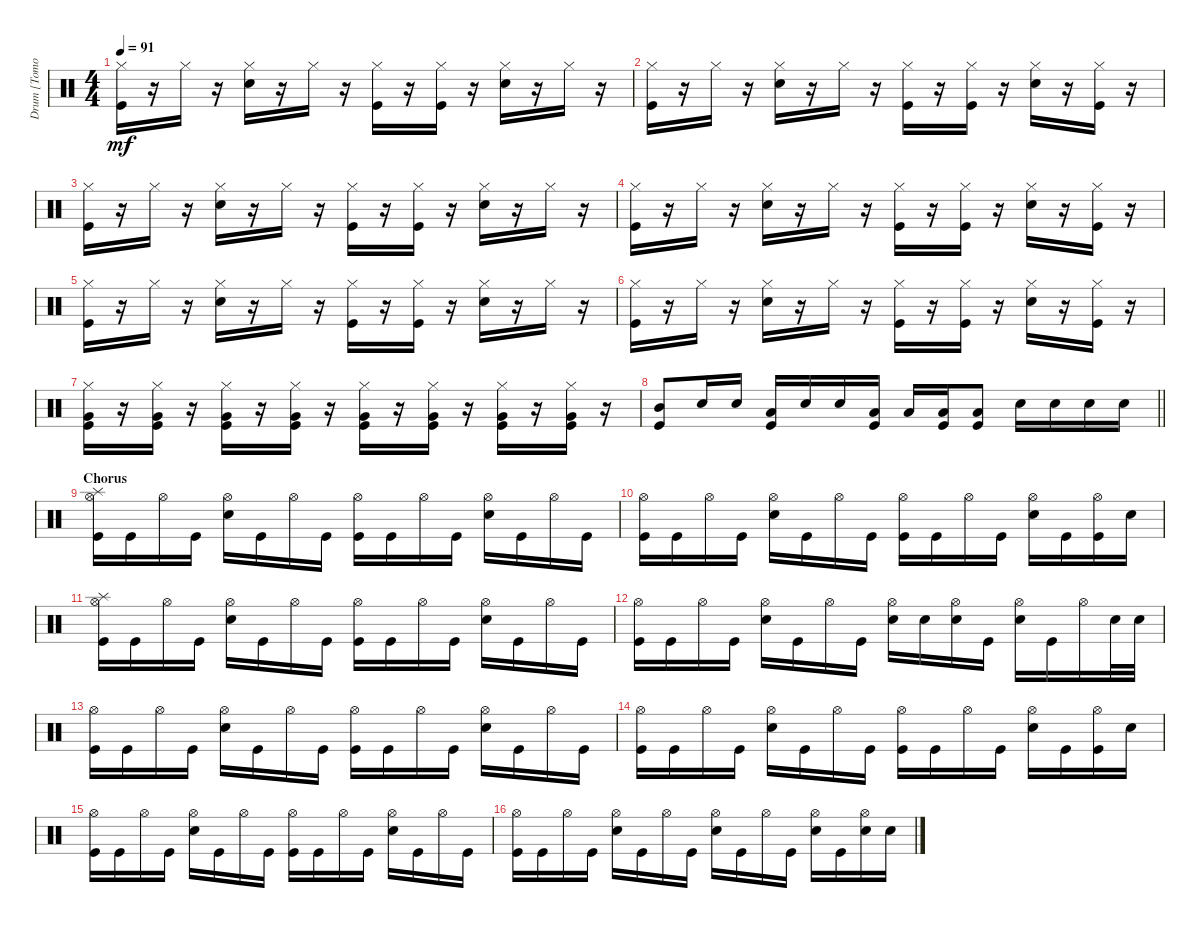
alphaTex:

\track ("Drum [Tomoya]" "Drum [Tomo") {instrument percussion}
\staff {score}
\articulation defaults
\ts (4 4)
\tempo 91
\clef neutral
\ks c
("Hi-Hat (closed)" "Kick (hit)").16{dy mf} r.16 "Hi-Hat (closed)".16 r.16 ("Hi-Hat (closed)" "Snare (hit) 2").16 r.16 "Hi-Hat (closed)".16 r.16 ("Hi-Hat (closed)" "Kick (hit)").16 r.16 ("Hi-Hat (closed)" "Kick (hit)").16 r.16 ("Hi-Hat (closed)" "Snare (hit) 2").16 r.16 "Hi-Hat (closed)".16 r.16 |
("Hi-Hat (closed)" "Kick (hit)").16 r.16 "Hi-Hat (closed)".16 r.16 ("Hi-Hat (closed)" "Snare (hit) 2").16 r.16 "Hi-Hat (closed)".16 r.16 ("Hi-Hat (closed)" "Kick (hit)").16 r.16 ("Hi-Hat (closed)" "Kick (hit)").16 r.16 ("Hi-Hat (closed)" "Snare (hit) 2").16 r.16 ("Hi-Hat (closed)" "Kick (hit)").16 r.16 |
("Hi-Hat (closed)" "Kick (hit)").16 r.16 "Hi-Hat (closed)".16 r.16 ("Hi-Hat (closed)" "Snare (hit) 2").16 r.16 "Hi-Hat (closed)".16 r.16 ("Hi-Hat (closed)" "Kick (hit)").16 r.16 ("Hi-Hat (closed)" "Kick (hit)").16 r.16 ("Hi-Hat (closed)" "Snare (hit) 2").16 r.16 "Hi-Hat (closed)".16 r.16 |
("Hi-Hat (closed)" "Kick (hit)").16 r.16 "Hi-Hat (closed)".16 r.16 ("Hi-Hat (closed)" "Snare (hit) 2").16 r.16 "Hi-Hat (closed)".16 r.16 ("Hi-Hat (closed)" "Kick (hit)").16 r.16 ("Hi-Hat (closed)" "Kick (hit)").16 r.16 ("Hi-Hat (closed)" "Snare (hit) 2").16 r.16 ("Hi-Hat (closed)" "Kick (hit)").16 r.16 |
("Hi-Hat (closed)" "Kick (hit)").16 r.16 "Hi-Hat (closed)".16 r.16 ("Hi-Hat (closed)" "Snare (hit) 2").16 r.16 "Hi-Hat (closed)".16 r.16 ("Hi-Hat (closed)" "Kick (hit)").16 r.16 ("Hi-Hat (closed)" "Kick (hit)").16 r.16 ("Hi-Hat (closed)" "Snare (hit) 2").16 r.16 "Hi-Hat (closed)".16 r.16 |
("Hi-Hat (closed)" "Kick (hit)").16 r.16 "Hi-Hat (closed)".16 r.16 ("Hi-Hat (closed)" "Snare (hit) 2").16 r.16 "Hi-Hat (closed)".16 r.16 ("Hi-Hat (closed)" "Kick (hit)").16 r.16 ("Hi-Hat (closed)" "Kick (hit)").16 r.16 ("Hi-Hat (closed)" "Snare (hit) 2").16 r.16 ("Hi-Hat (closed)" "Kick (hit)").16 r.16 |
("Hi-Hat (closed)" "Kick (hit)" "Very Low Tom (hit)").16 r.16 ("Hi-Hat (closed)" "Kick (hit)" "Very Low Tom (hit)").16 r.16 ("Hi-Hat (closed)" "Kick (hit)" "Very Low Tom (hit)").16 r.16 ("Hi-Hat (closed)" "Kick (hit)" "Very Low Tom (hit)").16 r.16 ("Hi-Hat (closed)" "Kick (hit)" "Very Low Tom (hit)").16 r.16 ("Hi-Hat (closed)" "Kick (hit)" "Very Low Tom (hit)").16 r.16 ("Hi-Hat (closed)" "Kick (hit)" "Very Low Tom (hit)").16 r.16 ("Hi-Hat (closed)" "Kick (hit)" "Very Low Tom (hit)").16 r.16 |
\barLineRight lightlight
("Mid Tom (hit)" "Kick (hit)").8 "Snare (hit) 2".16 "Snare (hit) 2".16 ("Low Tom (hit)" "Kick (hit)").16 "Snare (hit) 2".16 "Snare (hit) 2".16 ("Low Tom (hit)" "Kick (hit)").16 "Low Floor Tom (hit)".16 ("Low Floor Tom (hit)" "Kick (hit)").16 ("Low Floor Tom (hit)" "Kick (hit)").8 "Snare (hit) 2".16 "Snare (hit) 2".16 "Snare (hit) 2".16 "Snare (hit) 2".16 |
\section ("" "Chorus")
("Kick (hit)" "Splash (hit)" "Hi-Hat (open)").16 "Kick (hit)".16 "Hi-Hat (open)".16 "Kick (hit)".16 ("Snare (hit) 2" "Hi-Hat (open)").16 "Kick (hit)".16 "Hi-Hat (open)".16 "Kick (hit)".16 ("Kick (hit)" "Hi-Hat (open)").16 "Kick (hit)".16 "Hi-Hat (open)".16 "Kick (hit)".16 ("Snare (hit) 2" "Hi-Hat (open)").16 "Kick (hit)".16 "Hi-Hat (open)".16 "Kick (hit)".16 |
("Kick (hit)" "Hi-Hat (open)").16 "Kick (hit)".16 "Hi-Hat (open)".16 "Kick (hit)".16 ("Snare (hit) 2" "Hi-Hat (open)").16 "Kick (hit)".16 "Hi-Hat (open)".16 "Kick (hit)".16 ("Kick (hit)" "Hi-Hat (open)").16 "Kick (hit)".16 "Hi-Hat (open)".16 "Kick (hit)".16 ("Snare (hit) 2" "Hi-Hat (open)").16 "Kick (hit)".16 ("Hi-Hat (open)" "Kick (hit)").16 "Snare (hit) 2".16 |
("Kick (hit)" "Splash (hit)" "Hi-Hat (open)").16 "Kick (hit)".16 "Hi-Hat (open)".16 "Kick (hit)".16 ("Snare (hit) 2" "Hi-Hat (open)").16 "Kick (hit)".16 "Hi-Hat (open)".16 "Kick (hit)".16 ("Kick (hit)" "Hi-Hat (open)").16 "Kick (hit)".16 "Hi-Hat (open)".16 "Kick (hit)".16 ("Snare (hit) 2" "Hi-Hat (open)").16 "Kick (hit)".16 "Hi-Hat (open)".16 "Kick (hit)".16 |
("Kick (hit)" "Hi-Hat (open)").16 "Kick (hit)".16 "Hi-Hat (open)".16 "Kick (hit)".16 ("Snare (hit) 2" "Hi-Hat (open)").16 "Kick (hit)".16 "Hi-Hat (open)".16 "Kick (hit)".16 ("Hi-Hat (open)" "Snare (hit) 2").16 "Snare (hit) 2".16 ("Hi-Hat (open)" "Snare (hit) 2").16 "Kick (hit)".16 ("Snare (hit) 2" "Hi-Hat (open)").16 "Kick (hit)".16 "Hi-Hat (open)".16 "Snare (hit) 2".32 "Snare (hit) 2".32 |
("Kick (hit)" "Hi-Hat (open)").16 "Kick (hit)".16 "Hi-Hat (open)".16 "Kick (hit)".16 ("Snare (hit) 2" "Hi-Hat (open)").16 "Kick (hit)".16 "Hi-Hat (open)".16 "Kick (hit)".16 ("Kick (hit)" "Hi-Hat (open)").16 "Kick (hit)".16 "Hi-Hat (open)".16 "Kick (hit)".16 ("Snare (hit) 2" "Hi-Hat (open)").16 "Kick (hit)".16 "Hi-Hat (open)".16 "Kick (hit)".16 |
("Kick (hit)" "Hi-Hat (open)").16 "Kick (hit)".16 "Hi-Hat (open)".16 "Kick (hit)".16 ("Snare (hit) 2" "Hi-Hat (open)").16 "Kick (hit)".16 "Hi-Hat (open)".16 "Kick (hit)".16 ("Kick (hit)" "Hi-Hat (open)").16 "Kick (hit)".16 "Hi-Hat (open)".16 "Kick (hit)".16 ("Snare (hit) 2" "Hi-Hat (open)").16 "Kick (hit)".16 ("Hi-Hat (open)" "Kick (hit)").16 "Snare (hit) 2".16 |
("Kick (hit)" "Hi-Hat (open)").16 "Kick (hit)".16 "Hi-Hat (open)".16 "Kick (hit)".16 ("Snare (hit) 2" "Hi-Hat (open)").16 "Kick (hit)".16 "Hi-Hat (open)".16 "Kick (hit)".16 ("Kick (hit)" "Hi-Hat (open)").16 "Kick (hit)".16 "Hi-Hat (open)".16 "Kick (hit)".16 ("Snare (hit) 2" "Hi-Hat (open)").16 "Kick (hit)".16 "Hi-Hat (open)".16 "Kick (hit)".16 |
("Kick (hit)" "Hi-Hat (open)").16 "Kick (hit)".16 "Hi-Hat (open)".16 "Kick (hit)".16 ("Snare (hit) 2" "Hi-Hat (open)").16 "Kick (hit)".16 "Hi-Hat (open)".16 "Kick (hit)".16 ("Hi-Hat (open)" "Snare (hit) 2").16 "Kick (hit)".16 "Hi-Hat (open)".16 "Kick (hit)".16 ("Snare (hit) 2" "Hi-Hat (open)").16 "Kick (hit)".16 ("Hi-Hat (open)" "Snare (hit) 2").16 "Snare (hit) 2".16
